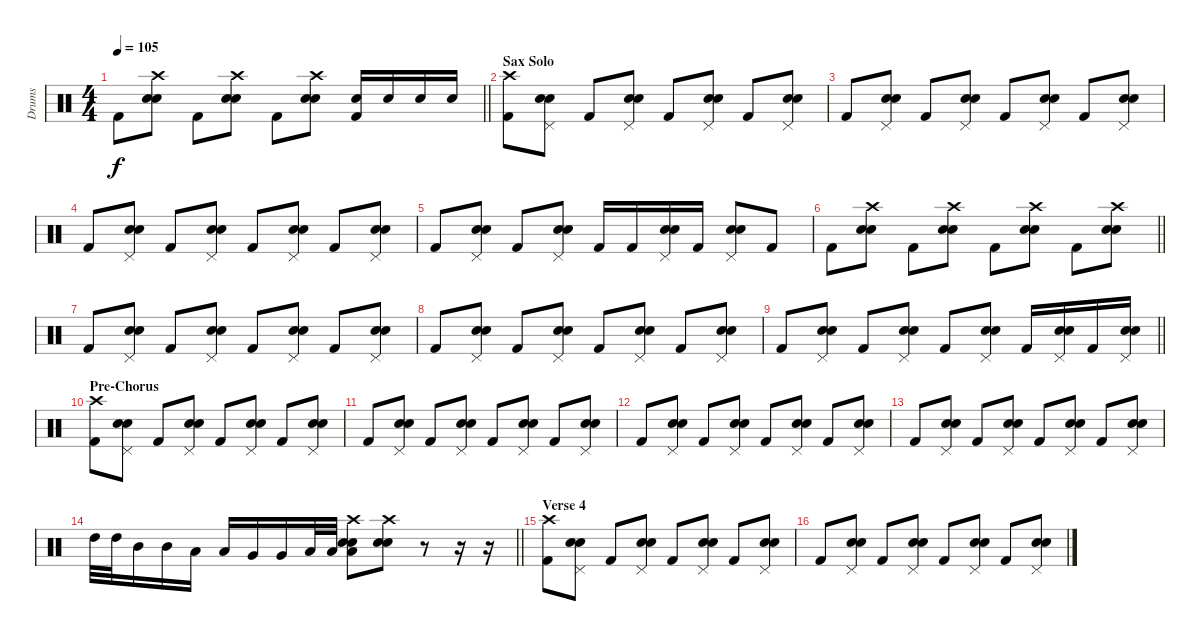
\track ("Drums" "Drums") {instrument percussion}
\staff {score}
\articulation defaults
\ts (4 4)
\tempo 105
\clef neutral
\barLineRight lightlight
\ks c "Kick (hit) 2".8{dy f}
("Crash high (hit)" "Electric Snare (hit)" "Hand Clap (hit)").8 "Kick (hit) 2".8 ("Crash high (hit)" "Electric Snare (hit)" "Hand Clap (hit)").8 "Kick (hit) 2".8 ("Crash high (hit)" "Electric Snare (hit)" "Hand Clap (hit)").8 ("Electric Snare (hit)" "Kick (hit) 2").16 "Electric Snare (hit)".16 "Electric Snare (hit)".16 "Electric Snare (hit)".16 |
\section ("" "Sax Solo")
("Crash high (hit)" "Kick (hit) 2").8 ("Pedal Hi-Hat (hit)" "Electric Snare (hit)" "Hand Clap (hit)").8 "Kick (hit) 2".8 ("Pedal Hi-Hat (hit)" "Electric Snare (hit)" "Hand Clap (hit)").8 "Kick (hit) 2".8 ("Pedal Hi-Hat (hit)" "Electric Snare (hit)" "Hand Clap (hit)").8 "Kick (hit) 2".8 ("Pedal Hi-Hat (hit)" "Electric Snare (hit)" "Hand Clap (hit)").8 |
"Kick (hit) 2".8 ("Pedal Hi-Hat (hit)" "Electric Snare (hit)" "Hand Clap (hit)").8 "Kick (hit) 2".8 ("Pedal Hi-Hat (hit)" "Electric Snare (hit)" "Hand Clap (hit)").8 "Kick (hit) 2".8 ("Pedal Hi-Hat (hit)" "Electric Snare (hit)" "Hand Clap (hit)").8 "Kick (hit) 2".8 ("Pedal Hi-Hat (hit)" "Electric Snare (hit)" "Hand Clap (hit)").8 |
"Kick (hit) 2".8 ("Pedal Hi-Hat (hit)" "Electric Snare (hit)" "Hand Clap (hit)").8 "Kick (hit) 2".8 ("Pedal Hi-Hat (hit)" "Electric Snare (hit)" "Hand Clap (hit)").8 "Kick (hit) 2".8 ("Pedal Hi-Hat (hit)" "Electric Snare (hit)" "Hand Clap (hit)").8 "Kick (hit) 2".8 ("Pedal Hi-Hat (hit)" "Electric Snare (hit)" "Hand Clap (hit)").8 |
"Kick (hit) 2".8 ("Pedal Hi-Hat (hit)" "Electric Snare (hit)" "Hand Clap (hit)").8 "Kick (hit) 2".8 ("Pedal Hi-Hat (hit)" "Electric Snare (hit)" "Hand Clap (hit)").8 "Kick (hit) 2".16 "Kick (hit) 2".16 ("Pedal Hi-Hat (hit)" "Electric Snare (hit)" "Hand Clap (hit)").16 "Kick (hit) 2".16 ("Pedal Hi-Hat (hit)" "Electric Snare (hit)" "Hand Clap (hit)").8 "Kick (hit) 2".8 |
\barLineRight lightlight "Kick (hit) 2".8
("Crash high (hit)" "Electric Snare (hit)" "Hand Clap (hit)").8 "Kick (hit) 2".8 ("Crash high (hit)" "Electric Snare (hit)" "Hand Clap (hit)").8 "Kick (hit) 2".8 ("Crash high (hit)" "Electric Snare (hit)" "Hand Clap (hit)").8 "Kick (hit) 2".8 ("Crash high (hit)" "Electric Snare (hit)" "Hand Clap (hit)").8 |
"Kick (hit) 2".8 ("Pedal Hi-Hat (hit)" "Electric Snare (hit)" "Hand Clap (hit)").8 "Kick (hit) 2".8 ("Pedal Hi-Hat (hit)" "Electric Snare (hit)" "Hand Clap (hit)").8 "Kick (hit) 2".8 ("Pedal Hi-Hat (hit)" "Electric Snare (hit)" "Hand Clap (hit)").8 "Kick (hit) 2".8 ("Pedal Hi-Hat (hit)" "Electric Snare (hit)" "Hand Clap (hit)").8 |
"Kick (hit) 2".8 ("Pedal Hi-Hat (hit)" "Electric Snare (hit)" "Hand Clap (hit)").8 "Kick (hit) 2".8 ("Pedal Hi-Hat (hit)" "Electric Snare (hit)" "Hand Clap (hit)").8 "Kick (hit) 2".8 ("Pedal Hi-Hat (hit)" "Electric Snare (hit)" "Hand Clap (hit)").8 "Kick (hit) 2".8 ("Pedal Hi-Hat (hit)" "Electric Snare (hit)" "Hand Clap (hit)").8 |
\barLineRight lightlight "Kick (hit) 2".8
("Pedal Hi-Hat (hit)" "Electric Snare (hit)" "Hand Clap (hit)").8 "Kick (hit) 2".8 ("Pedal Hi-Hat (hit)" "Electric Snare (hit)" "Hand Clap (hit)").8 "Kick (hit) 2".8 ("Pedal Hi-Hat (hit)" "Electric Snare (hit)" "Hand Clap (hit)").8 "Kick (hit) 2".16 ("Pedal Hi-Hat (hit)" "Electric Snare (hit)" "Hand Clap (hit)").16 "Kick (hit) 2".16 ("Pedal Hi-Hat (hit)" "Electric Snare (hit)" "Hand Clap (hit)").16 |
\section ("" "Pre-Chorus")
("Crash high (hit)" "Kick (hit) 2").8 ("Pedal Hi-Hat (hit)" "Electric Snare (hit)" "Hand Clap (hit)").8 "Kick (hit) 2".8 ("Pedal Hi-Hat (hit)" "Electric Snare (hit)" "Hand Clap (hit)").8 "Kick (hit) 2".8 ("Pedal Hi-Hat (hit)" "Electric Snare (hit)" "Hand Clap (hit)").8 "Kick (hit) 2".8 ("Pedal Hi-Hat (hit)" "Electric Snare (hit)" "Hand Clap (hit)").8 |
"Kick (hit) 2".8 ("Pedal Hi-Hat (hit)" "Electric Snare (hit)" "Hand Clap (hit)").8 "Kick (hit) 2".8 ("Pedal Hi-Hat (hit)" "Electric Snare (hit)" "Hand Clap (hit)").8 "Kick (hit) 2".8 ("Pedal Hi-Hat (hit)" "Electric Snare (hit)" "Hand Clap (hit)").8 "Kick (hit) 2".8 ("Pedal Hi-Hat (hit)" "Electric Snare (hit)" "Hand Clap (hit)").8 |
"Kick (hit) 2".8 ("Pedal Hi-Hat (hit)" "Electric Snare (hit)" "Hand Clap (hit)").8 "Kick (hit) 2".8 ("Pedal Hi-Hat (hit)" "Electric Snare (hit)" "Hand Clap (hit)").8 "Kick (hit) 2".8 ("Pedal Hi-Hat (hit)" "Electric Snare (hit)" "Hand Clap (hit)").8 "Kick (hit) 2".8 ("Pedal Hi-Hat (hit)" "Electric Snare (hit)" "Hand Clap (hit)").8 |
"Kick (hit) 2".8 ("Pedal Hi-Hat (hit)" "Electric Snare (hit)" "Hand Clap (hit)").8 "Kick (hit) 2".8 ("Pedal Hi-Hat (hit)" "Electric Snare (hit)" "Hand Clap (hit)").8 "Kick (hit) 2".8 ("Pedal Hi-Hat (hit)" "Electric Snare (hit)" "Hand Clap (hit)").8 "Kick (hit) 2".8 ("Pedal Hi-Hat (hit)" "Electric Snare (hit)" "Hand Clap (hit)").8 |
\barLineRight lightlight "High Tom (hit)".32 "High Tom (hit)".32 "Mid Tom (hit)".16 "Mid Tom (hit)".16 "Low Tom (hit)".16 "Low Tom (hit)".16 "Very Low Tom (hit)".16 "Very Low Tom (hit)".16 "Low Floor Tom (hit)".32 "Low Floor Tom (hit)".32
("Crash high (hit)" "Electric Snare (hit)" "Hand Clap (hit)" "Low Floor Tom (hit)").8 ("Crash high (hit)" "Electric Snare (hit)" "Hand Clap (hit)").8 r.8 r.16 r.16 |
\section ("" "Verse 4")
("Crash high (hit)" "Kick (hit) 2").8 ("Pedal Hi-Hat (hit)" "Electric Snare (hit)" "Hand Clap (hit)").8 "Kick (hit) 2".8 ("Pedal Hi-Hat (hit)" "Electric Snare (hit)" "Hand Clap (hit)").8 "Kick (hit) 2".8 ("Pedal Hi-Hat (hit)" "Electric Snare (hit)" "Hand Clap (hit)").8 "Kick (hit) 2".8 ("Pedal Hi-Hat (hit)" "Electric Snare (hit)" "Hand Clap (hit)").8 |
"Kick (hit) 2".8 ("Pedal Hi-Hat (hit)" "Electric Snare (hit)" "Hand Clap (hit)").8 "Kick (hit) 2".8 ("Pedal Hi-Hat (hit)" "Electric Snare (hit)" "Hand Clap (hit)").8 "Kick (hit) 2".8 ("Pedal Hi-Hat (hit)" "Electric Snare (hit)" "Hand Clap (hit)").8 "Kick (hit) 2".8 ("Pedal Hi-Hat (hit)" "Electric Snare (hit)" "Hand Clap (hit)").8
